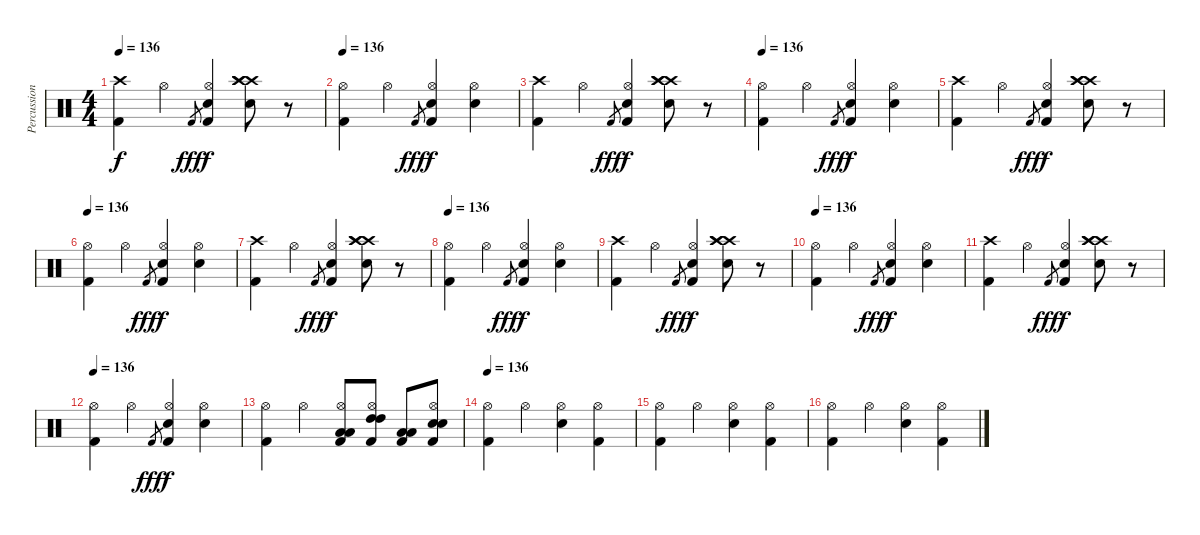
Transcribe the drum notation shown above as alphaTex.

\track ("Percussioni" "Percussion") {instrument percussion}
\staff {score}
\articulation defaults
\ts (4 4)
\tempo 136
\clef neutral
\ks c
("Crash high (hit)" "Kick (hit) 2").4{dy f} "Hi-Hat (open)".4 "Kick (hit) 2"{sl}.8{gr dy fff} ("Hi-Hat (open)" "Snare (hit) 2" "Kick (hit) 2").4{dy f} ("Crash high (hit)" "Crash high (hit)" "Crash high (hit)" "Snare (hit) 2").8 r.8 |
\tempo 136
("Hi-Hat (open)" "Kick (hit) 2").4 "Hi-Hat (open)".4 "Kick (hit) 2"{sl}.8{gr dy fff} ("Hi-Hat (open)" "Snare (hit) 2" "Kick (hit) 2").4{dy f} ("Hi-Hat (open)" "Snare (hit) 2").4 |
("Crash high (hit)" "Kick (hit) 2").4 "Hi-Hat (open)".4 "Kick (hit) 2"{sl}.8{gr dy fff} ("Hi-Hat (open)" "Snare (hit) 2" "Kick (hit) 2").4{dy f} ("Crash high (hit)" "Crash high (hit)" "Crash high (hit)" "Snare (hit) 2").8 r.8 |
\tempo 136
("Hi-Hat (open)" "Kick (hit) 2").4 "Hi-Hat (open)".4 "Kick (hit) 2"{sl}.8{gr dy fff} ("Hi-Hat (open)" "Snare (hit) 2" "Kick (hit) 2").4{dy f} ("Hi-Hat (open)" "Snare (hit) 2").4 |
("Crash high (hit)" "Kick (hit) 2").4 "Hi-Hat (open)".4 "Kick (hit) 2"{sl}.8{gr dy fff} ("Hi-Hat (open)" "Snare (hit) 2" "Kick (hit) 2").4{dy f} ("Crash high (hit)" "Crash high (hit)" "Crash high (hit)" "Snare (hit) 2").8 r.8 |
\tempo 136
("Hi-Hat (open)" "Kick (hit) 2").4 "Hi-Hat (open)".4 "Kick (hit) 2"{sl}.8{gr dy fff} ("Hi-Hat (open)" "Snare (hit) 2" "Kick (hit) 2").4{dy f} ("Hi-Hat (open)" "Snare (hit) 2").4 |
("Crash high (hit)" "Kick (hit) 2").4 "Hi-Hat (open)".4 "Kick (hit) 2"{sl}.8{gr dy fff} ("Hi-Hat (open)" "Snare (hit) 2" "Kick (hit) 2").4{dy f} ("Crash high (hit)" "Crash high (hit)" "Crash high (hit)" "Snare (hit) 2").8 r.8 |
\tempo 136
("Hi-Hat (open)" "Kick (hit) 2").4 "Hi-Hat (open)".4 "Kick (hit) 2"{sl}.8{gr dy fff} ("Hi-Hat (open)" "Snare (hit) 2" "Kick (hit) 2").4{dy f} ("Hi-Hat (open)" "Snare (hit) 2").4 |
("Crash high (hit)" "Kick (hit) 2").4 "Hi-Hat (open)".4 "Kick (hit) 2"{sl}.8{gr dy fff} ("Hi-Hat (open)" "Snare (hit) 2" "Kick (hit) 2").4{dy f} ("Crash high (hit)" "Crash high (hit)" "Crash high (hit)" "Snare (hit) 2").8 r.8 |
\tempo 136
("Hi-Hat (open)" "Kick (hit) 2").4 "Hi-Hat (open)".4 "Kick (hit) 2"{sl}.8{gr dy fff} ("Hi-Hat (open)" "Snare (hit) 2" "Kick (hit) 2").4{dy f} ("Hi-Hat (open)" "Snare (hit) 2").4 |
("Crash high (hit)" "Kick (hit) 2").4 "Hi-Hat (open)".4 "Kick (hit) 2"{sl}.8{gr dy fff} ("Hi-Hat (open)" "Snare (hit) 2" "Kick (hit) 2").4{dy f} ("Crash high (hit)" "Crash high (hit)" "Crash high (hit)" "Snare (hit) 2").8 r.8 |
\tempo 136
("Hi-Hat (open)" "Kick (hit) 2").4 "Hi-Hat (open)".4 "Kick (hit) 2"{sl}.8{gr dy fff} ("Hi-Hat (open)" "Snare (hit) 2" "Kick (hit) 2").4{dy f} ("Hi-Hat (open)" "Snare (hit) 2").4 |
("Kick (hit) 2" "Hi-Hat (open)").4 "Hi-Hat (open)".4 ("Low Floor Tom (hit)" "Low Floor Tom (hit)" "Hi-Hat (open)" "Kick (hit) 2").8 ("High Tom (hit)" "High Tom (hit)" "Hi-Hat (open)" "Kick (hit) 2").8 ("Low Tom (hit)" "Low Tom (hit)" "Kick (hit) 2").8 ("Snare (hit) 2" "Snare (hit) 2" "Hi-Hat (open)" "Kick (hit) 2").8 |
\tempo 136
("Hi-Hat (open)" "Kick (hit) 2").4 "Hi-Hat (open)".4 ("Hi-Hat (open)" "Snare (hit) 2").4 ("Hi-Hat (open)" "Kick (hit) 2").4 |
("Hi-Hat (open)" "Kick (hit) 2").4 "Hi-Hat (open)".4 ("Hi-Hat (open)" "Snare (hit) 2").4 ("Hi-Hat (open)" "Kick (hit) 2").4 |
("Hi-Hat (open)" "Kick (hit) 2").4 "Hi-Hat (open)".4 ("Hi-Hat (open)" "Snare (hit) 2").4 ("Hi-Hat (open)" "Kick (hit) 2").4
